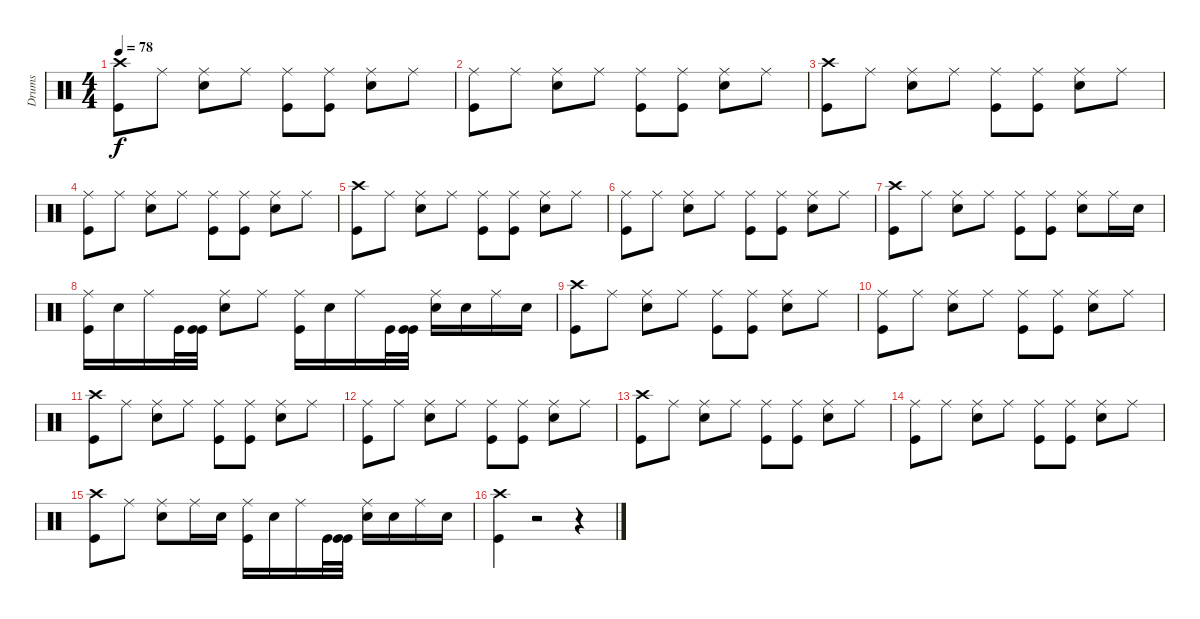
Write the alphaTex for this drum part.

\track ("Drums" "Drums") {instrument percussion}
\staff {score}
\articulation defaults
\ts (4 4)
\tempo 78
\clef neutral
\ks c
("Kick (hit)" "Crash high (hit)").8{dy f} "Ride (middle)".8 ("Snare (hit) 2" "Ride (middle)").8 "Ride (middle)".8 ("Kick (hit)" "Ride (middle)").8 ("Kick (hit)" "Ride (middle)").8 ("Snare (hit) 2" "Ride (middle)").8 "Ride (middle)".8 |
("Kick (hit)" "Ride (middle)").8 "Ride (middle)".8 ("Snare (hit) 2" "Ride (middle)").8 "Ride (middle)".8 ("Kick (hit)" "Ride (middle)").8 ("Kick (hit)" "Ride (middle)").8 ("Snare (hit) 2" "Ride (middle)").8 "Ride (middle)".8 |
("Kick (hit)" "Crash high (hit)").8 "Ride (middle)".8 ("Snare (hit) 2" "Ride (middle)").8 "Ride (middle)".8 ("Kick (hit)" "Ride (middle)").8 ("Kick (hit)" "Ride (middle)").8 ("Snare (hit) 2" "Ride (middle)").8 "Ride (middle)".8 |
("Kick (hit)" "Ride (middle)").8 "Ride (middle)".8 ("Snare (hit) 2" "Ride (middle)").8 "Ride (middle)".8 ("Kick (hit)" "Ride (middle)").8 ("Kick (hit)" "Ride (middle)").8 ("Snare (hit) 2" "Ride (middle)").8 "Ride (middle)".8 |
("Kick (hit)" "Crash high (hit)").8 "Ride (middle)".8 ("Snare (hit) 2" "Ride (middle)").8 "Ride (middle)".8 ("Kick (hit)" "Ride (middle)").8 ("Kick (hit)" "Ride (middle)").8 ("Snare (hit) 2" "Ride (middle)").8 "Ride (middle)".8 |
("Kick (hit)" "Ride (middle)").8 "Ride (middle)".8 ("Snare (hit) 2" "Ride (middle)").8 "Ride (middle)".8 ("Kick (hit)" "Ride (middle)").8 ("Kick (hit)" "Ride (middle)").8 ("Snare (hit) 2" "Ride (middle)").8 "Ride (middle)".8 |
("Kick (hit)" "Crash high (hit)").8 "Ride (middle)".8 ("Snare (hit) 2" "Ride (middle)").8 "Ride (middle)".8 ("Kick (hit)" "Ride (middle)").8 ("Kick (hit)" "Ride (middle)").8 ("Snare (hit) 2" "Ride (middle)").8 "Ride (middle)".16 "Snare (hit) 2".16 |
("Kick (hit)" "Ride (middle)").16 "Snare (hit) 2".16 "Ride (middle)".16 "Kick (hit)".32 ("Kick (hit)" "Kick (hit)").32 ("Snare (hit) 2" "Ride (middle)").8 "Ride (middle)".8 ("Kick (hit)" "Ride (middle)").16 "Snare (hit) 2".16 "Ride (middle)".16 "Kick (hit)".32 ("Kick (hit)" "Kick (hit)").32 ("Snare (hit) 2" "Ride (middle)").16 "Snare (hit) 2".16 "Ride (middle)".16 "Snare (hit) 2".16 |
("Kick (hit)" "Crash high (hit)").8 "Ride (middle)".8 ("Snare (hit) 2" "Ride (middle)").8 "Ride (middle)".8 ("Kick (hit)" "Ride (middle)").8 ("Kick (hit)" "Ride (middle)").8 ("Snare (hit) 2" "Ride (middle)").8 "Ride (middle)".8 |
("Kick (hit)" "Ride (middle)").8 "Ride (middle)".8 ("Snare (hit) 2" "Ride (middle)").8 "Ride (middle)".8 ("Kick (hit)" "Ride (middle)").8 ("Kick (hit)" "Ride (middle)").8 ("Snare (hit) 2" "Ride (middle)").8 "Ride (middle)".8 |
("Kick (hit)" "Crash high (hit)").8 "Ride (middle)".8 ("Snare (hit) 2" "Ride (middle)").8 "Ride (middle)".8 ("Kick (hit)" "Ride (middle)").8 ("Kick (hit)" "Ride (middle)").8 ("Snare (hit) 2" "Ride (middle)").8 "Ride (middle)".8 |
("Kick (hit)" "Ride (middle)").8 "Ride (middle)".8 ("Snare (hit) 2" "Ride (middle)").8 "Ride (middle)".8 ("Kick (hit)" "Ride (middle)").8 ("Kick (hit)" "Ride (middle)").8 ("Snare (hit) 2" "Ride (middle)").8 "Ride (middle)".8 |
("Kick (hit)" "Crash high (hit)").8 "Ride (middle)".8 ("Snare (hit) 2" "Ride (middle)").8 "Ride (middle)".8 ("Kick (hit)" "Ride (middle)").8 ("Kick (hit)" "Ride (middle)").8 ("Snare (hit) 2" "Ride (middle)").8 "Ride (middle)".8 |
("Kick (hit)" "Ride (middle)").8 "Ride (middle)".8 ("Snare (hit) 2" "Ride (middle)").8 "Ride (middle)".8 ("Kick (hit)" "Ride (middle)").8 ("Kick (hit)" "Ride (middle)").8 ("Snare (hit) 2" "Ride (middle)").8 "Ride (middle)".8 |
("Kick (hit)" "Crash high (hit)").8 "Ride (middle)".8 ("Snare (hit) 2" "Ride (middle)").8 "Ride (middle)".16 "Snare (hit) 2".16 ("Kick (hit)" "Ride (middle)").16 "Snare (hit) 2".16 "Ride (middle)".16 "Kick (hit)".32 ("Kick (hit)" "Kick (hit)").32 ("Snare (hit) 2" "Ride (middle)").16 "Snare (hit) 2".16 "Ride (middle)".16 "Snare (hit) 2".16 |
("Kick (hit)" "Crash high (hit)").4 r.2 r.4
